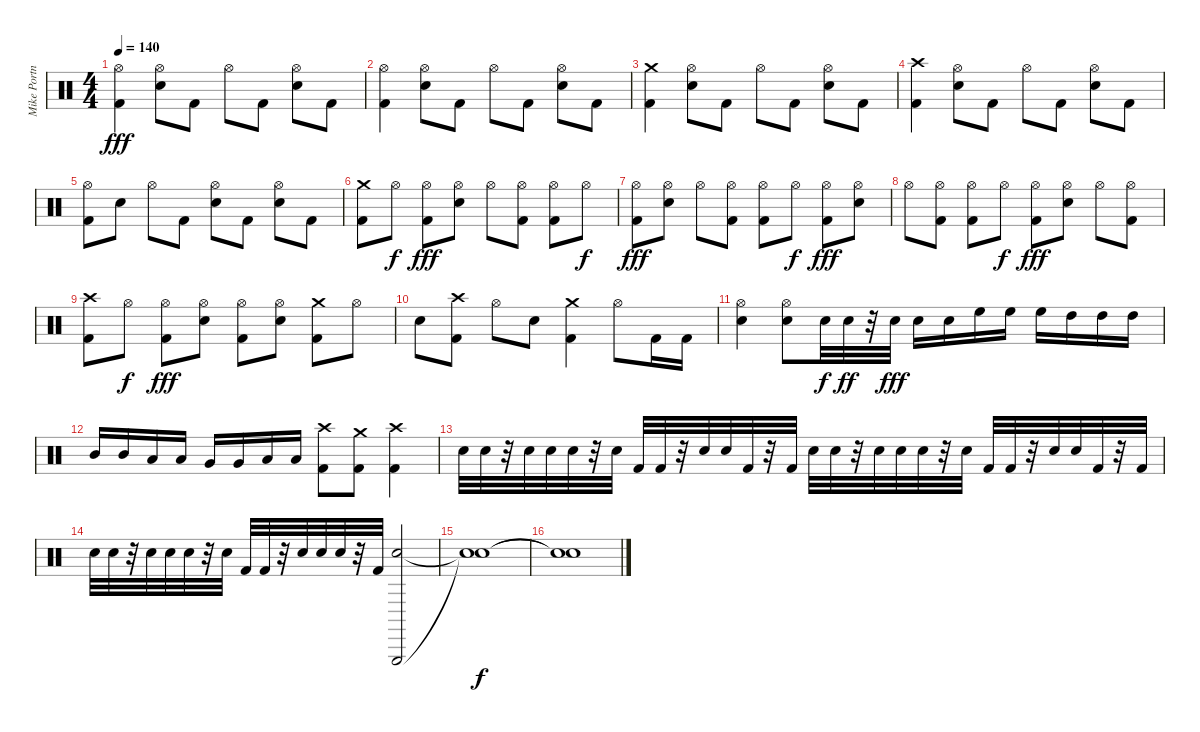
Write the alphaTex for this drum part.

\track ("Mike Portnoy - Drum" "Mike Portn") {instrument percussion}
\staff {score}
\articulation defaults
\ts (4 4)
\tempo 140
\clef neutral
\ks c
("Hi-Hat (open)" "Kick (hit) 2").4{dy fff} ("Hi-Hat (open)" "Snare (hit) 2").8 "Kick (hit) 2".8 "Hi-Hat (open)".8 "Kick (hit) 2".8 ("Hi-Hat (open)" "Snare (hit) 2").8 "Kick (hit) 2".8 |
("Hi-Hat (open)" "Kick (hit) 2").4 ("Hi-Hat (open)" "Snare (hit) 2").8 "Kick (hit) 2".8 "Hi-Hat (open)".8 "Kick (hit) 2".8 ("Hi-Hat (open)" "Snare (hit) 2").8 "Kick (hit) 2".8 |
("Crash medium (hit)" "Kick (hit) 2").4 ("Hi-Hat (open)" "Snare (hit) 2").8 "Kick (hit) 2".8 "Hi-Hat (open)".8 "Kick (hit) 2".8 ("Hi-Hat (open)" "Snare (hit) 2").8 "Kick (hit) 2".8 |
("Crash high (hit)" "Kick (hit) 2").4 ("Hi-Hat (open)" "Snare (hit) 2").8 "Kick (hit) 2".8 "Hi-Hat (open)".8 "Kick (hit) 2".8 ("Hi-Hat (open)" "Snare (hit) 2").8 "Kick (hit) 2".8 |
("Hi-Hat (open)" "Kick (hit) 2").8 "Snare (hit) 2".8 "Hi-Hat (open)".8 "Kick (hit) 2".8 ("Hi-Hat (open)" "Snare (hit) 2").8 "Kick (hit) 2".8 ("Hi-Hat (open)" "Snare (hit) 2").8 "Kick (hit) 2".8 |
("Crash medium (hit)" "Kick (hit) 2").8 "Hi-Hat (open)".8{dy f} ("Hi-Hat (open)" "Kick (hit) 2").8{dy fff} ("Hi-Hat (open)" "Snare (hit) 2").8 "Hi-Hat (open)".8 ("Hi-Hat (open)" "Kick (hit) 2").8 ("Hi-Hat (open)" "Kick (hit) 2").8 "Hi-Hat (open)".8{dy f} |
("Hi-Hat (open)" "Kick (hit) 2").8{dy fff} ("Hi-Hat (open)" "Snare (hit) 2").8 "Hi-Hat (open)".8 ("Hi-Hat (open)" "Kick (hit) 2").8 ("Hi-Hat (open)" "Kick (hit) 2").8 "Hi-Hat (open)".8{dy f} ("Hi-Hat (open)" "Kick (hit) 2").8{dy fff} ("Hi-Hat (open)" "Snare (hit) 2").8 |
"Hi-Hat (open)".8 ("Hi-Hat (open)" "Kick (hit) 2").8 ("Hi-Hat (open)" "Kick (hit) 2").8 "Hi-Hat (open)".8{dy f} ("Hi-Hat (open)" "Kick (hit) 2").8{dy fff} ("Hi-Hat (open)" "Snare (hit) 2").8 "Hi-Hat (open)".8 ("Hi-Hat (open)" "Kick (hit) 2").8 |
("Crash high (hit)" "Kick (hit) 2").8 "Hi-Hat (open)".8{dy f} ("Hi-Hat (open)" "Kick (hit) 2").8{dy fff} ("Hi-Hat (open)" "Snare (hit) 2").8 ("Hi-Hat (open)" "Kick (hit) 2").8 ("Hi-Hat (open)" "Snare (hit) 2").8 ("Crash medium (hit)" "Kick (hit) 2").8 "Hi-Hat (open)".8 |
"Snare (hit) 2".8 ("Crash high (hit)" "Kick (hit) 2").8 "Hi-Hat (open)".8 "Snare (hit) 2".8 ("Crash medium (hit)" "Kick (hit) 2").4 "Hi-Hat (open)".8 "Kick (hit) 2".16 "Kick (hit) 2".16 |
("Hi-Hat (open)" "Snare (hit) 2").4 ("Hi-Hat (open)" "Snare (hit) 2").8 "Snare (hit) 2".32{dy f} "Snare (hit) 2".32{dy ff} r.32 "Snare (hit) 2".32{dy fff} "Snare (hit) 2".16 "Snare (hit) 2".16 "High Floor Tom (hit)".16 "High Floor Tom (hit)".16 "High Floor Tom (hit)".16 "High Tom (hit)".16 "High Tom (hit)".16 "High Tom (hit)".16 |
"Mid Tom (hit)".16 "Mid Tom (hit)".16 "Low Tom (hit)".16 "Low Tom (hit)".16 "Very Low Tom (hit)".16 "Very Low Tom (hit)".16 "Low Floor Tom (hit)".16 "Low Floor Tom (hit)".16 ("Crash high (hit)" "Kick (hit) 2").8 ("Crash medium (hit)" "Kick (hit) 2").8 ("Crash high (hit)" "Kick (hit) 2").4 |
"Snare (hit) 2".32 "Snare (hit) 2".32 r.32 "Snare (hit) 2".32 "Snare (hit) 2".32 "Snare (hit) 2".32 r.32 "Snare (hit) 2".32 "Kick (hit) 2".32 "Kick (hit) 2".32 r.32 "Snare (hit) 2".32 "Snare (hit) 2".32 "Kick (hit) 2".32 r.32 "Kick (hit) 2".32 "Snare (hit) 2".32 "Snare (hit) 2".32 r.32 "Snare (hit) 2".32 "Snare (hit) 2".32 "Snare (hit) 2".32 r.32 "Snare (hit) 2".32 "Kick (hit) 2".32 "Kick (hit) 2".32 r.32 "Snare (hit) 2".32 "Snare (hit) 2".32 "Kick (hit) 2".32 r.32 "Kick (hit) 2".32 |
"Snare (hit) 2".32 "Snare (hit) 2".32 r.32 "Snare (hit) 2".32 "Snare (hit) 2".32 "Snare (hit) 2".32 r.32 "Snare (hit) 2".32 "Kick (hit) 2".32 "Kick (hit) 2".32 r.32 "Snare (hit) 2".32 "Snare (hit) 2".32 "Snare (hit) 2".32 r.32 "Kick (hit) 2".32 ("Triangle (hit)" "Snare (hit) 2").2 |
("Snare (hit)"{t} "Snare (hit)"{t}).1{dy f} |
("Snare (hit)"{t} "Snare (hit)"{t}).1
